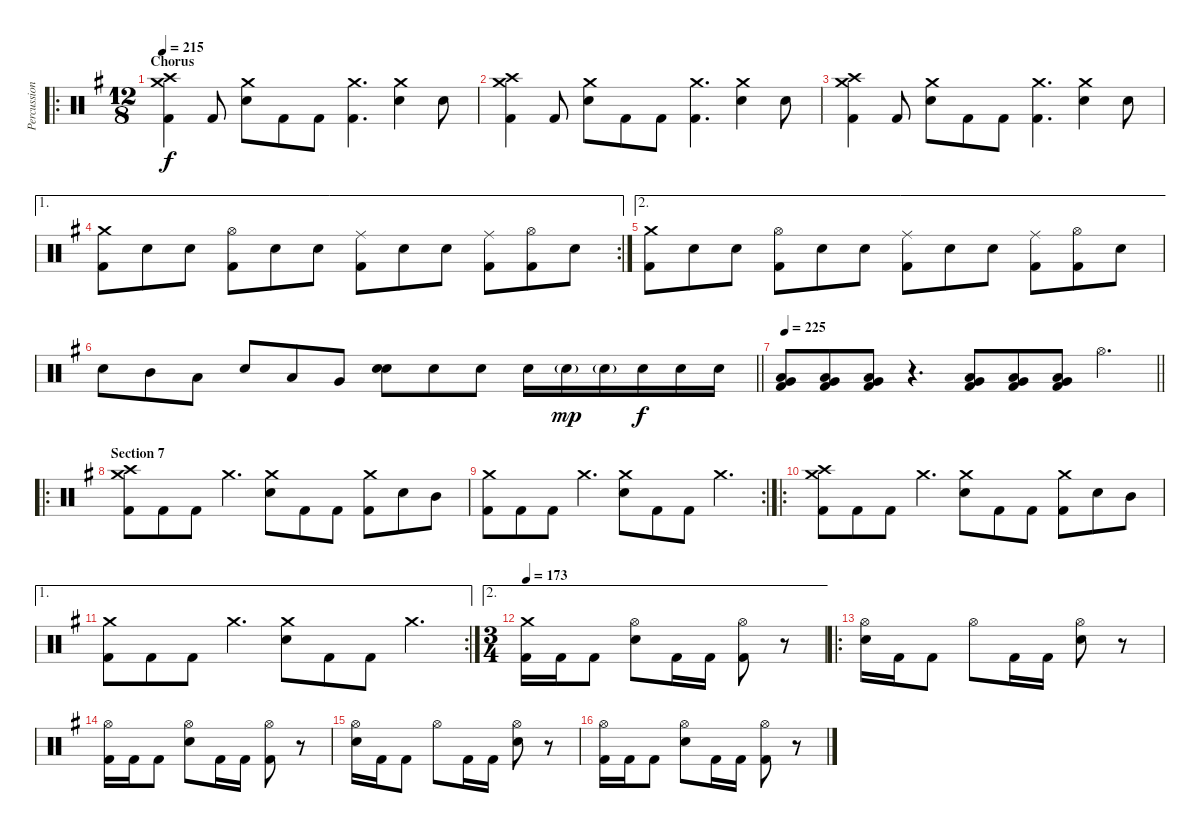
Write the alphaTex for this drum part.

\track ("Percussion" "Percussion") {instrument percussion}
\staff {score}
\articulation defaults
\ro
\ts (12 8)
\section ("" "Chorus")
\tempo 215
\clef neutral
\ks eminor
("Crash high (hit)" "Crash medium (hit)" "Kick (hit) 2").4{dy f} "Kick (hit) 2".8 ("Crash medium (hit)" "Electric Snare (hit)").8 "Kick (hit) 2".8 "Kick (hit) 2".8 ("Crash medium (hit)" "Kick (hit) 2").4{d} ("Crash medium (hit)" "Electric Snare (hit)").4 "Electric Snare (hit)".8 |
("Crash high (hit)" "Crash medium (hit)" "Kick (hit) 2").4 "Kick (hit) 2".8 ("Crash medium (hit)" "Electric Snare (hit)").8 "Kick (hit) 2".8 "Kick (hit) 2".8 ("Crash medium (hit)" "Kick (hit) 2").4{d} ("Crash medium (hit)" "Electric Snare (hit)").4 "Electric Snare (hit)".8 |
("Crash high (hit)" "Crash medium (hit)" "Kick (hit) 2").4 "Kick (hit) 2".8 ("Crash medium (hit)" "Electric Snare (hit)").8 "Kick (hit) 2".8 "Kick (hit) 2".8 ("Crash medium (hit)" "Kick (hit) 2").4{d} ("Crash medium (hit)" "Electric Snare (hit)").4 "Electric Snare (hit)".8 |
\ae 1
\rc 2
("Crash medium (hit)" "Kick (hit) 2").8 "Electric Snare (hit)".8 "Electric Snare (hit)".8 ("Hi-Hat (open)" "Kick (hit) 2").8 "Electric Snare (hit)".8 "Electric Snare (hit)".8 ("Ride (middle)" "Kick (hit) 2").8 "Electric Snare (hit)".8 "Electric Snare (hit)".8 ("Ride (middle)" "Kick (hit) 2").8 ("Hi-Hat (open)" "Kick (hit) 2").8 "Electric Snare (hit)".8 |
\ae 2
("Crash medium (hit)" "Kick (hit) 2").8 "Electric Snare (hit)".8 "Electric Snare (hit)".8 ("Hi-Hat (open)" "Kick (hit) 2").8 "Electric Snare (hit)".8 "Electric Snare (hit)".8 ("Ride (middle)" "Kick (hit) 2").8 "Electric Snare (hit)".8 "Electric Snare (hit)".8 ("Ride (middle)" "Kick (hit) 2").8 ("Hi-Hat (open)" "Kick (hit) 2").8 "Electric Snare (hit)".8 |
\barLineRight lightlight "Electric Snare (hit)".8 "Mid Tom (hit)".8 "Low Tom (hit)".8 "Electric Snare (hit)".8 "Low Tom (hit)".8 "Very Low Tom (hit)".8
("Electric Snare (hit)" "Electric Snare (hit)").8{bd 240} "Electric Snare (hit)".8 "Electric Snare (hit)".8 "Electric Snare (hit)".16 "Electric Snare (hit)"{g}.16{dy mp} "Electric Snare (hit)"{g}.16 "Electric Snare (hit)".16{dy f} "Electric Snare (hit)".16 "Electric Snare (hit)".16 |
\tempo 225
\barLineRight lightlight
("Low Tom (hit)" "Very Low Tom (hit)" "Kick (hit) 2").8 ("Low Tom (hit)" "Very Low Tom (hit)" "Kick (hit) 2").8 ("Low Tom (hit)" "Very Low Tom (hit)" "Kick (hit) 2").8 r.4{d} ("Low Tom (hit)" "Very Low Tom (hit)" "Kick (hit) 2").8 ("Low Tom (hit)" "Very Low Tom (hit)" "Kick (hit) 2").8 ("Low Tom (hit)" "Very Low Tom (hit)" "Kick (hit) 2").8 "Hi-Hat (open)".4{d} |
\ro
\section ("" "Section 7")
("Crash high (hit)" "Crash medium (hit)" "Kick (hit) 2").8 "Kick (hit) 2".8 "Kick (hit) 2".8 "Crash medium (hit)".4{d} ("Crash medium (hit)" "Electric Snare (hit)").8 "Kick (hit) 2".8 "Kick (hit) 2".8 ("Crash medium (hit)" "Kick (hit) 2").8 "Electric Snare (hit)".8 "Mid Tom (hit)".8 |
\rc 2
("Crash medium (hit)" "Kick (hit) 2").8 "Kick (hit) 2".8 "Kick (hit) 2".8 "Crash medium (hit)".4{d} ("Crash medium (hit)" "Electric Snare (hit)").8 "Kick (hit) 2".8 "Kick (hit) 2".8 "Crash medium (hit)".4{d} |
\ro
("Crash high (hit)" "Crash medium (hit)" "Kick (hit) 2").8 "Kick (hit) 2".8 "Kick (hit) 2".8 "Crash medium (hit)".4{d} ("Crash medium (hit)" "Electric Snare (hit)").8 "Kick (hit) 2".8 "Kick (hit) 2".8 ("Crash medium (hit)" "Kick (hit) 2").8 "Electric Snare (hit)".8 "Mid Tom (hit)".8 |
\ae 1
\rc 2
("Crash medium (hit)" "Kick (hit) 2").8 "Kick (hit) 2".8 "Kick (hit) 2".8 "Crash medium (hit)".4{d} ("Crash medium (hit)" "Electric Snare (hit)").8 "Kick (hit) 2".8 "Kick (hit) 2".8 "Crash medium (hit)".4{d} |
\ae 2
\ts (3 4)
\tempo 173
("Crash medium (hit)" "Kick (hit) 2").16 "Kick (hit) 2".16 "Kick (hit) 2".8 ("Hi-Hat (open)" "Electric Snare (hit)").8 "Kick (hit) 2".16 "Kick (hit) 2".16 ("Hi-Hat (open)" "Kick (hit) 2").8 r.8 |
\ro
("Hi-Hat (open)" "Electric Snare (hit)").16 "Kick (hit) 2".16 "Kick (hit) 2".8 "Hi-Hat (open)".8 "Kick (hit) 2".16 "Kick (hit) 2".16 ("Hi-Hat (open)" "Electric Snare (hit)").8 r.8 |
("Hi-Hat (open)" "Kick (hit) 2").16 "Kick (hit) 2".16 "Kick (hit) 2".8 ("Hi-Hat (open)" "Electric Snare (hit)").8 "Kick (hit) 2".16 "Kick (hit) 2".16 ("Hi-Hat (open)" "Kick (hit) 2").8 r.8 |
("Hi-Hat (open)" "Electric Snare (hit)").16 "Kick (hit) 2".16 "Kick (hit) 2".8 "Hi-Hat (open)".8 "Kick (hit) 2".16 "Kick (hit) 2".16 ("Hi-Hat (open)" "Electric Snare (hit)").8 r.8 |
("Hi-Hat (open)" "Kick (hit) 2").16 "Kick (hit) 2".16 "Kick (hit) 2".8 ("Hi-Hat (open)" "Electric Snare (hit)").8 "Kick (hit) 2".16 "Kick (hit) 2".16 ("Hi-Hat (open)" "Kick (hit) 2").8 r.8
